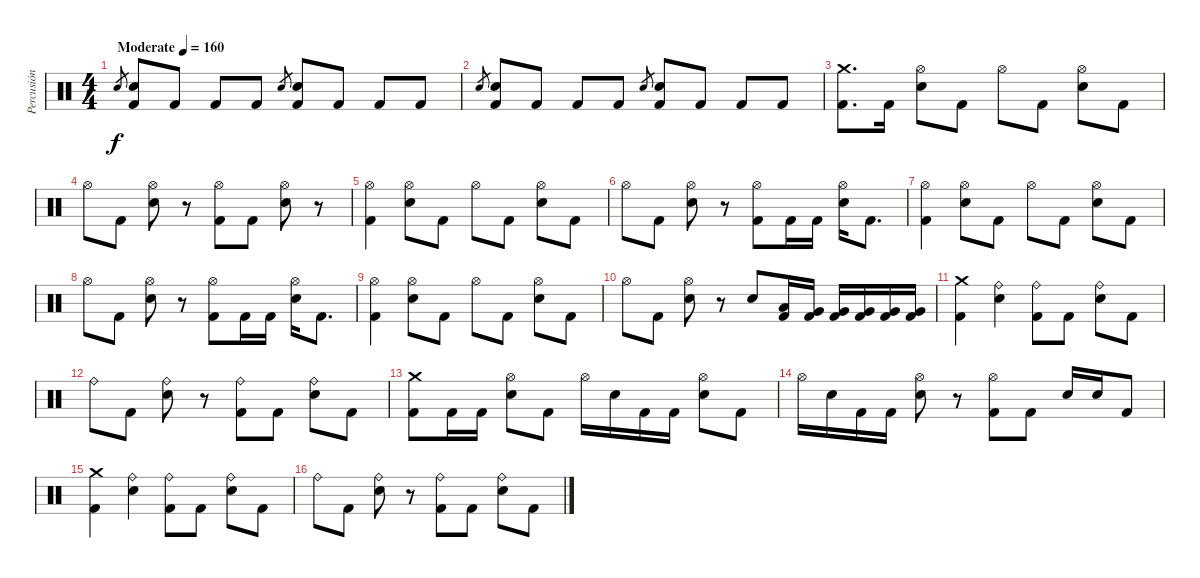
\track ("Percusión" "Percusión") {instrument percussion}
\staff {score}
\articulation defaults
\ts (4 4)
\tempo (160 "Moderate")
\clef neutral
\ks c "Snare (hit) 2".8{gr dy f}
("Kick (hit) 2" "Snare (hit) 2").8 "Kick (hit) 2".8 "Kick (hit) 2".8 "Kick (hit) 2".8 "Snare (hit) 2".8{gr} ("Snare (hit) 2" "Kick (hit) 2").8 "Kick (hit) 2".8 "Kick (hit) 2".8 "Kick (hit) 2".8 |
"Snare (hit) 2".8{gr} ("Kick (hit) 2" "Snare (hit) 2").8 "Kick (hit) 2".8 "Kick (hit) 2".8 "Kick (hit) 2".8 "Snare (hit) 2".8{gr} ("Snare (hit) 2" "Kick (hit) 2").8 "Kick (hit) 2".8 "Kick (hit) 2".8 "Kick (hit) 2".8 |
("Crash medium (hit)" "Kick (hit) 2").8{d} "Kick (hit) 2".16 ("Hi-Hat (open)" "Snare (hit) 2").8 "Kick (hit) 2".8 "Hi-Hat (open)".8 "Kick (hit) 2".8 ("Hi-Hat (open)" "Snare (hit) 2").8 "Kick (hit) 2".8 |
"Hi-Hat (open)".8 "Kick (hit) 2".8 ("Hi-Hat (open)" "Snare (hit) 2").8 r.8 ("Hi-Hat (open)" "Kick (hit) 2").8 "Kick (hit) 2".8 ("Hi-Hat (open)" "Snare (hit) 2").8 r.8 |
("Hi-Hat (open)" "Kick (hit) 2").4 ("Hi-Hat (open)" "Snare (hit) 2").8 "Kick (hit) 2".8 "Hi-Hat (open)".8 "Kick (hit) 2".8 ("Hi-Hat (open)" "Snare (hit) 2").8 "Kick (hit) 2".8 |
"Hi-Hat (open)".8 "Kick (hit) 2".8 ("Hi-Hat (open)" "Snare (hit) 2").8 r.8 ("Hi-Hat (open)" "Kick (hit) 2").8 "Kick (hit) 2".16 "Kick (hit) 2".16 ("Hi-Hat (open)" "Snare (hit) 2").16 "Kick (hit) 2".8{d} |
("Hi-Hat (open)" "Kick (hit) 2").4 ("Hi-Hat (open)" "Snare (hit) 2").8 "Kick (hit) 2".8 "Hi-Hat (open)".8 "Kick (hit) 2".8 ("Hi-Hat (open)" "Snare (hit) 2").8 "Kick (hit) 2".8 |
"Hi-Hat (open)".8 "Kick (hit) 2".8 ("Hi-Hat (open)" "Snare (hit) 2").8 r.8 ("Hi-Hat (open)" "Kick (hit) 2").8 "Kick (hit) 2".16 "Kick (hit) 2".16 ("Hi-Hat (open)" "Snare (hit) 2").16 "Kick (hit) 2".8{d} |
("Hi-Hat (open)" "Kick (hit) 2").4 ("Hi-Hat (open)" "Snare (hit) 2").8 "Kick (hit) 2".8 "Hi-Hat (open)".8 "Kick (hit) 2".8 ("Hi-Hat (open)" "Snare (hit) 2").8 "Kick (hit) 2".8 |
"Hi-Hat (open)".8 "Kick (hit) 2".8 ("Hi-Hat (open)" "Snare (hit) 2").8 r.8 "Snare (hit) 2".8 ("Low Tom (hit)" "Kick (hit) 2").16 ("Very Low Tom (hit)" "Kick (hit) 2").16 ("Very Low Tom (hit)" "Kick (hit) 2").16 ("Kick (hit) 2" "Very Low Tom (hit)").16 ("Kick (hit) 2" "Very Low Tom (hit)").16 ("Kick (hit) 2" "Very Low Tom (hit)").16 |
("Crash medium (hit)" "Kick (hit) 2").4 ("Ride (bell)" "Snare (hit) 2").4 ("Ride (bell)" "Kick (hit) 2").8 "Kick (hit) 2".8 ("Ride (bell)" "Snare (hit) 2").8 "Kick (hit) 2".8 |
"Ride (bell)".8 "Kick (hit) 2".8 ("Ride (bell)" "Snare (hit) 2").8 r.8 ("Ride (bell)" "Kick (hit) 2").8 "Kick (hit) 2".8 ("Ride (bell)" "Snare (hit) 2").8 "Kick (hit) 2".8 |
("Crash medium (hit)" "Kick (hit) 2").8 "Kick (hit) 2".16 "Kick (hit) 2".16 ("Hi-Hat (open)" "Snare (hit) 2").8 "Kick (hit) 2".8 "Hi-Hat (open)".16 "Snare (hit) 2".16 "Kick (hit) 2".16 "Kick (hit) 2".16 ("Hi-Hat (open)" "Snare (hit) 2").8 "Kick (hit) 2".8 |
"Hi-Hat (open)".16 "Snare (hit) 2".16 "Kick (hit) 2".16 "Kick (hit) 2".16 ("Hi-Hat (open)" "Snare (hit) 2").8 r.8 ("Hi-Hat (open)" "Kick (hit) 2").8 "Kick (hit) 2".8 "Snare (hit) 2".16 "Snare (hit) 2".16 "Kick (hit) 2".8 |
("Crash medium (hit)" "Kick (hit) 2").4 ("Ride (bell)" "Snare (hit) 2").4 ("Ride (bell)" "Kick (hit) 2").8 "Kick (hit) 2".8 ("Ride (bell)" "Snare (hit) 2").8 "Kick (hit) 2".8 |
"Ride (bell)".8 "Kick (hit) 2".8 ("Ride (bell)" "Snare (hit) 2").8 r.8 ("Ride (bell)" "Kick (hit) 2").8 "Kick (hit) 2".8 ("Ride (bell)" "Snare (hit) 2").8 "Kick (hit) 2".8
